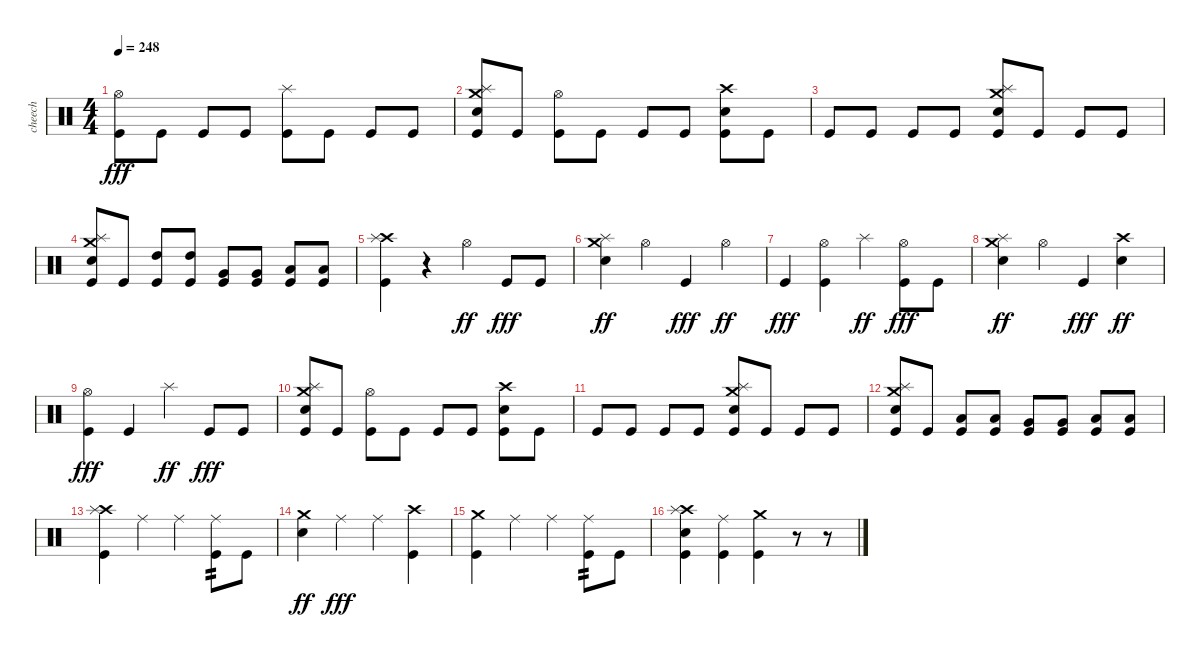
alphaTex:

\track ("cheech" "cheech") {instrument percussion}
\staff {score}
\articulation defaults
\ts (4 4)
\tempo 248
\clef neutral
\ks c
("Hi-Hat (open)" "Kick (hit)").8{dy fff} "Kick (hit)".8 "Kick (hit)".8 "Kick (hit)".8 ("Splash (hit)" "Kick (hit)").8 "Kick (hit)".8 "Kick (hit)".8 "Kick (hit)".8 |
("Crash medium (hit)" "Splash (hit)" "Electric Snare (hit)" "Kick (hit)").8 "Kick (hit)".8 ("Hi-Hat (open)" "Kick (hit)").8 "Kick (hit)".8 "Kick (hit)".8 "Kick (hit)".8 ("Crash high (hit)" "Electric Snare (hit)" "Kick (hit)").8 "Kick (hit)".8 |
"Kick (hit)".8 "Kick (hit)".8 "Kick (hit)".8 "Kick (hit)".8 ("Crash medium (hit)" "Splash (hit)" "Electric Snare (hit)" "Kick (hit)").8 "Kick (hit)".8 "Kick (hit)".8 "Kick (hit)".8 |
("Crash medium (hit)" "Splash (hit)" "Electric Snare (hit)" "Kick (hit)").8 "Kick (hit)".8 ("High Tom (hit)" "Kick (hit)").8 ("High Tom (hit)" "Kick (hit)").8 ("Very Low Tom (hit)" "Kick (hit)").8 ("Very Low Tom (hit)" "Kick (hit)").8 ("Low Floor Tom (hit)" "Kick (hit)").8 ("Low Floor Tom (hit)" "Kick (hit)").8 |
("Crash high (hit)" "Splash (hit)" "Kick (hit)").4 r.4 "Hi-Hat (open)".4{dy ff} "Kick (hit)".8{dy fff} "Kick (hit)".8 |
("Crash medium (hit)" "Splash (hit)" "Electric Snare (hit)").4{dy ff} "Hi-Hat (open)".4 "Kick (hit)".4{dy fff} "Hi-Hat (open)".4{dy ff} |
"Kick (hit)".4{dy fff} ("Hi-Hat (open)" "Kick (hit)").4 "Splash (hit)".4{dy ff} ("Hi-Hat (open)" "Kick (hit)").8{dy fff} "Kick (hit)".8 |
("Crash medium (hit)" "Splash (hit)" "Electric Snare (hit)").4{dy ff} "Hi-Hat (open)".4 "Kick (hit)".4{dy fff} ("Crash high (hit)" "Electric Snare (hit)").4{dy ff} |
("Hi-Hat (open)" "Kick (hit)").4{dy fff} "Kick (hit)".4 "Splash (hit)".4{dy ff} "Kick (hit)".8{dy fff} "Kick (hit)".8 |
("Crash medium (hit)" "Splash (hit)" "Electric Snare (hit)" "Kick (hit)").8 "Kick (hit)".8 ("Hi-Hat (open)" "Kick (hit)").8 "Kick (hit)".8 "Kick (hit)".8 "Kick (hit)".8 ("Crash high (hit)" "Electric Snare (hit)" "Kick (hit)").8 "Kick (hit)".8 |
"Kick (hit)".8 "Kick (hit)".8 "Kick (hit)".8 "Kick (hit)".8 ("Crash medium (hit)" "Splash (hit)" "Electric Snare (hit)" "Kick (hit)").8 "Kick (hit)".8 "Kick (hit)".8 "Kick (hit)".8 |
("Crash medium (hit)" "Splash (hit)" "Electric Snare (hit)" "Kick (hit)").8 "Kick (hit)".8 ("Low Tom (hit)" "Kick (hit)").8 ("Low Tom (hit)" "Kick (hit)").8 ("Very Low Tom (hit)" "Kick (hit)").8 ("Very Low Tom (hit)" "Kick (hit)").8 ("Low Floor Tom (hit)" "Kick (hit)").8 ("Low Floor Tom (hit)" "Kick (hit)").8 |
("Crash high (hit)" "Splash (hit)" "Kick (hit)").4 "Ride (middle)".4 "Ride (middle)".4 ("Ride (middle)" "Kick (hit)").8{tp 2} "Kick (hit)".8 |
("Crash medium (hit)" "Electric Snare (hit)").4{dy ff} "Ride (middle)".4{dy fff} "Ride (middle)".4 ("Crash high (hit)" "Kick (hit)").4 |
("Crash medium (hit)" "Kick (hit)").4 "Ride (middle)".4 "Ride (middle)".4 ("Ride (middle)" "Kick (hit)").8{tp 2} "Kick (hit)".8 |
("Crash high (hit)" "Splash (hit)" "Electric Snare (hit)" "Kick (hit)").4 ("Ride (middle)" "Kick (hit)").4 ("Crash medium (hit)" "Kick (hit)").4 r.8 r.8
